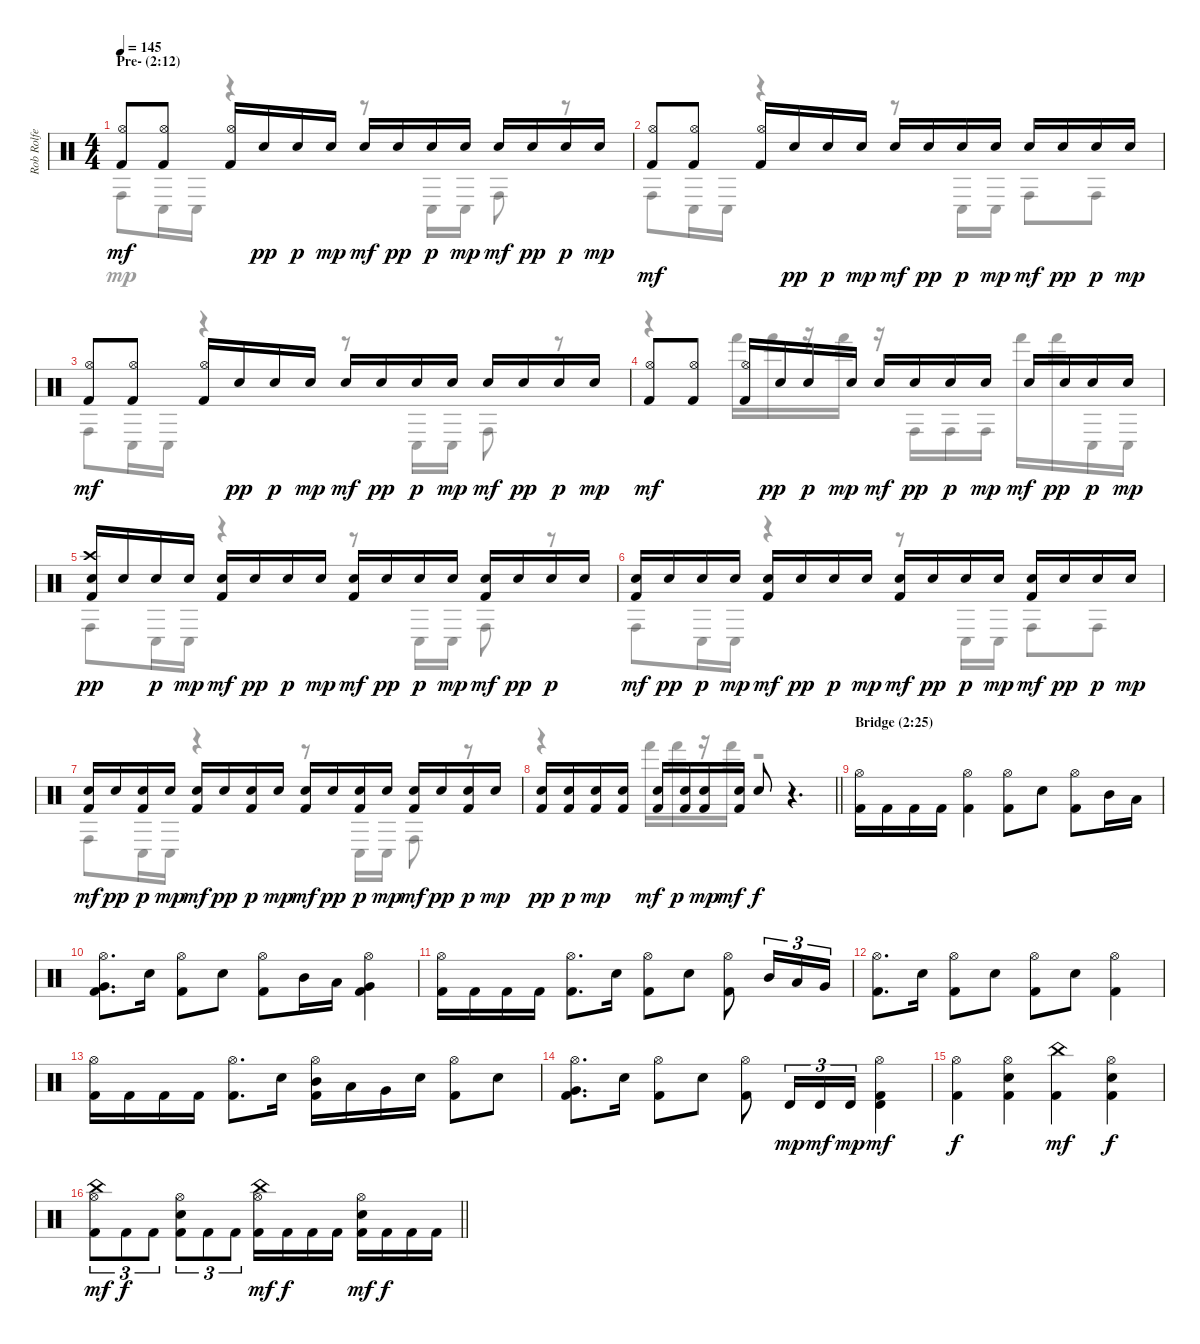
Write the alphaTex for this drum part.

\track ("Rob Rolfe [Drums]" "Rob Rolfe ") {instrument percussion}
\staff {score}
\articulation defaults
\voice
\ts (4 4)
\section ("" "Pre- (2:12)")
\tempo 145
\clef neutral
\ks c
("Hi-Hat (open)" "Kick (hit) 2").8{dy mf} ("Hi-Hat (open)" "Kick (hit) 2").8 ("Hi-Hat (open)" "Kick (hit) 2").16 "Snare (hit) 2".16{dy pp} "Snare (hit) 2".16{dy p} "Snare (hit) 2".16{dy mp} "Snare (hit) 2".16{dy mf} "Snare (hit) 2".16{dy pp} "Snare (hit) 2".16{dy p} "Snare (hit) 2".16{dy mp} "Snare (hit) 2".16{dy mf} "Snare (hit) 2".16{dy pp} "Snare (hit) 2".16{dy p} "Snare (hit) 2".16{dy mp} |
("Hi-Hat (open)" "Kick (hit) 2").8{dy mf} ("Hi-Hat (open)" "Kick (hit) 2").8 ("Hi-Hat (open)" "Kick (hit) 2").16 "Snare (hit) 2".16{dy pp} "Snare (hit) 2".16{dy p} "Snare (hit) 2".16{dy mp} "Snare (hit) 2".16{dy mf} "Snare (hit) 2".16{dy pp} "Snare (hit) 2".16{dy p} "Snare (hit) 2".16{dy mp} "Snare (hit) 2".16{dy mf} "Snare (hit) 2".16{dy pp} "Snare (hit) 2".16{dy p} "Snare (hit) 2".16{dy mp} |
("Hi-Hat (open)" "Kick (hit) 2").8{dy mf} ("Hi-Hat (open)" "Kick (hit) 2").8 ("Hi-Hat (open)" "Kick (hit) 2").16 "Snare (hit) 2".16{dy pp} "Snare (hit) 2".16{dy p} "Snare (hit) 2".16{dy mp} "Snare (hit) 2".16{dy mf} "Snare (hit) 2".16{dy pp} "Snare (hit) 2".16{dy p} "Snare (hit) 2".16{dy mp} "Snare (hit) 2".16{dy mf} "Snare (hit) 2".16{dy pp} "Snare (hit) 2".16{dy p} "Snare (hit) 2".16{dy mp} |
("Hi-Hat (open)" "Kick (hit) 2").8{dy mf} ("Hi-Hat (open)" "Kick (hit) 2").8 ("Hi-Hat (open)" "Kick (hit) 2").16 "Snare (hit) 2".16{dy pp} "Snare (hit) 2".16{dy p} "Snare (hit) 2".16{dy mp} "Snare (hit) 2".16{dy mf} "Snare (hit) 2".16{dy pp} "Snare (hit) 2".16{dy p} "Snare (hit) 2".16{dy mp} "Snare (hit) 2".16{dy mf} "Snare (hit) 2".16{dy pp} "Snare (hit) 2".16{dy p} "Snare (hit) 2".16{dy mp} |
("Crash high (hit)" "Snare (hit) 2" "Kick (hit) 2").16{dy pp} "Snare (hit) 2".16 "Snare (hit) 2".16{dy p} "Snare (hit) 2".16{dy mp} ("Snare (hit) 2" "Kick (hit) 2").16{dy mf} "Snare (hit) 2".16{dy pp} "Snare (hit) 2".16{dy p} "Snare (hit) 2".16{dy mp} ("Snare (hit) 2" "Kick (hit) 2").16{dy mf} "Snare (hit) 2".16{dy pp} "Snare (hit) 2".16{dy p} "Snare (hit) 2".16{dy mp} ("Snare (hit) 2" "Kick (hit) 2").16{dy mf} "Snare (hit) 2".16{dy pp} "Snare (hit) 2".16{dy p} "Snare (hit) 2".16 |
("Snare (hit) 2" "Kick (hit) 2").16{dy mf} "Snare (hit) 2".16{dy pp} "Snare (hit) 2".16{dy p} "Snare (hit) 2".16{dy mp} ("Snare (hit) 2" "Kick (hit) 2").16{dy mf} "Snare (hit) 2".16{dy pp} "Snare (hit) 2".16{dy p} "Snare (hit) 2".16{dy mp} ("Snare (hit) 2" "Kick (hit) 2").16{dy mf} "Snare (hit) 2".16{dy pp} "Snare (hit) 2".16{dy p} "Snare (hit) 2".16{dy mp} ("Snare (hit) 2" "Kick (hit) 2").16{dy mf} "Snare (hit) 2".16{dy pp} "Snare (hit) 2".16{dy p} "Snare (hit) 2".16{dy mp} |
("Snare (hit) 2" "Kick (hit) 2").16{dy mf} "Snare (hit) 2".16{dy pp} ("Snare (hit) 2" "Kick (hit) 2").16{dy p} "Snare (hit) 2".16{dy mp} ("Snare (hit) 2" "Kick (hit) 2").16{dy mf} "Snare (hit) 2".16{dy pp} ("Snare (hit) 2" "Kick (hit) 2").16{dy p} "Snare (hit) 2".16{dy mp} ("Snare (hit) 2" "Kick (hit) 2").16{dy mf} "Snare (hit) 2".16{dy pp} ("Snare (hit) 2" "Kick (hit) 2").16{dy p} "Snare (hit) 2".16{dy mp} ("Snare (hit) 2" "Kick (hit) 2").16{dy mf} "Snare (hit) 2".16{dy pp} ("Snare (hit) 2" "Kick (hit) 2").16{dy p} "Snare (hit) 2".16{dy mp} |
\barLineRight lightlight
("Snare (hit) 2" "Kick (hit) 2").16{dy pp} ("Snare (hit) 2" "Kick (hit) 2").16{dy p} ("Snare (hit) 2" "Kick (hit) 2").16{dy mp} ("Snare (hit) 2" "Kick (hit) 2").16 ("Snare (hit) 2" "Kick (hit) 2").16{dy mf} ("Snare (hit) 2" "Kick (hit) 2").16{dy p} ("Snare (hit) 2" "Kick (hit) 2").16{dy mp} ("Snare (hit) 2" "Kick (hit) 2").16{dy mf} "Snare (hit) 2".8{dy f} r.4{d} |
\section ("" "Bridge (2:25)")
("Hi-Hat (open)" "Kick (hit) 2").16 "Kick (hit) 2".16 "Kick (hit) 2".16 "Kick (hit) 2".16 ("Hi-Hat (open)" "Kick (hit) 2").4 ("Hi-Hat (open)" "Kick (hit) 2").8 "Electric Snare (hit)".8 ("Hi-Hat (open)" "Kick (hit) 2").8 "Mid Tom (hit)".16 "Low Tom (hit)".16 |
("Hi-Hat (open)" "Very Low Tom (hit)" "Kick (hit) 2").8{d} "Electric Snare (hit)".16 ("Hi-Hat (open)" "Kick (hit) 2").8 "Electric Snare (hit)".8 ("Hi-Hat (open)" "Kick (hit) 2").8 "Mid Tom (hit)".16 "Low Tom (hit)".16 ("Hi-Hat (open)" "Very Low Tom (hit)" "Kick (hit) 2").4 |
("Hi-Hat (open)" "Kick (hit) 2").16 "Kick (hit) 2".16 "Kick (hit) 2".16 "Kick (hit) 2".16 ("Hi-Hat (open)" "Kick (hit) 2").8{d} "Electric Snare (hit)".16 ("Hi-Hat (open)" "Kick (hit) 2").8 "Electric Snare (hit)".8 ("Hi-Hat (open)" "Kick (hit) 2").8 "Mid Tom (hit)".16{tu (3 2)} "Low Tom (hit)".16{tu (3 2)} "Very Low Tom (hit)".16{tu (3 2)} |
("Hi-Hat (open)" "Kick (hit) 2").8{d} "Electric Snare (hit)".16 ("Hi-Hat (open)" "Kick (hit) 2").8 "Electric Snare (hit)".8 ("Hi-Hat (open)" "Kick (hit) 2").8 "Electric Snare (hit)".8 ("Hi-Hat (open)" "Kick (hit) 2").4 |
("Hi-Hat (open)" "Kick (hit) 2").16 "Kick (hit) 2".16 "Kick (hit) 2".16 "Kick (hit) 2".16 ("Hi-Hat (open)" "Kick (hit) 2").8{d} "Electric Snare (hit)".16 ("Mid Tom (hit)" "Hi-Hat (open)" "Kick (hit) 2").16 "Low Tom (hit)".16 "Very Low Tom (hit)".16 "Electric Snare (hit)".16 ("Hi-Hat (open)" "Kick (hit) 2").8 "Electric Snare (hit)".8 |
("Hi-Hat (open)" "Very Low Tom (hit)" "Kick (hit) 2").8{d} "Electric Snare (hit)".16 ("Hi-Hat (open)" "Kick (hit) 2").8 "Electric Snare (hit)".8 ("Hi-Hat (open)" "Kick (hit) 2").8 "Timbale high (hit)".16{tu (3 2) dy mp} "Timbale high (hit)".16{tu (3 2) dy mf} "Timbale high (hit)".16{tu (3 2) dy mp} ("Hi-Hat (open)" "Timbale high (hit)" "Kick (hit) 2").4{dy mf} |
("Hi-Hat (open)" "Kick (hit) 2").4{dy f} ("Hi-Hat (open)" "Electric Snare (hit)" "Kick (hit) 2").4 ("China (hit)" "Kick (hit) 2").4{dy mf} ("Hi-Hat (open)" "Electric Snare (hit)" "Kick (hit) 2").4{dy f} |
\barLineRight lightlight
("China (hit)" "Hi-Hat (open)" "Kick (hit) 2").8{tu (3 2) dy mf} "Kick (hit) 2".8{tu (3 2) dy f} "Kick (hit) 2".8{tu (3 2)} ("Hi-Hat (open)" "Electric Snare (hit)" "Kick (hit) 2").8{tu (3 2)} "Kick (hit) 2".8{tu (3 2)} "Kick (hit) 2".8{tu (3 2)} ("China (hit)" "Hi-Hat (open)" "Kick (hit) 2").16{dy mf} "Kick (hit) 2".16{dy f} "Kick (hit) 2".16 "Kick (hit) 2".16 ("Hi-Hat (open)" "Electric Snare (hit)" "Kick (hit) 2").16{dy mf} "Kick (hit) 2".16{dy f} "Kick (hit) 2".16 "Kick (hit) 2".16
\voice
\clef neutral
\ottava regular
\simile none
\ks c "Conga high (hit)".8{dy mp} "Conga low (hit)".16 "Conga low (hit)".16
r.4 r.8 "Conga low (hit)".16 "Conga low (hit)".16 "Conga high (hit)".8 r.8 |
"Conga high (hit)".8 "Conga low (hit)".16 "Conga low (hit)".16 r.4 r.8 "Conga low (hit)".16 "Conga low (hit)".16 "Conga high (hit)".8 "Conga high (hit)".8 |
"Conga high (hit)".8 "Conga low (hit)".16 "Conga low (hit)".16 r.4 r.8 "Conga low (hit)".16 "Conga low (hit)".16 "Conga high (hit)".8 r.8 |
r.4 "Hand (hit)".16 "Hand (hit)".16 r.16 "Hand (hit)".16 r.16 "Conga high (hit)".16 "Conga high (hit)".16 "Conga high (hit)".16 "Hand (hit)".16 "Hand (hit)".16 "Conga low (hit)".16 "Conga low (hit)".16 |
"Conga high (hit)".8 "Conga low (hit)".16 "Conga low (hit)".16 r.4 r.8 "Conga low (hit)".16 "Conga low (hit)".16 "Conga high (hit)".8 r.8 |
"Conga high (hit)".8 "Conga low (hit)".16 "Conga low (hit)".16 r.4 r.8 "Conga low (hit)".16 "Conga low (hit)".16 "Conga high (hit)".8 "Conga high (hit)".8 |
"Conga high (hit)".8 "Conga low (hit)".16 "Conga low (hit)".16 r.4 r.8 "Conga low (hit)".16 "Conga low (hit)".16 "Conga high (hit)".8 r.8 |
\barLineRight lightlight
r.4 "Hand (hit)".16 "Hand (hit)".16 r.16 "Hand (hit)".16 r.2 |
|
|
|
|
|
|
|
\barLineRight lightlight
